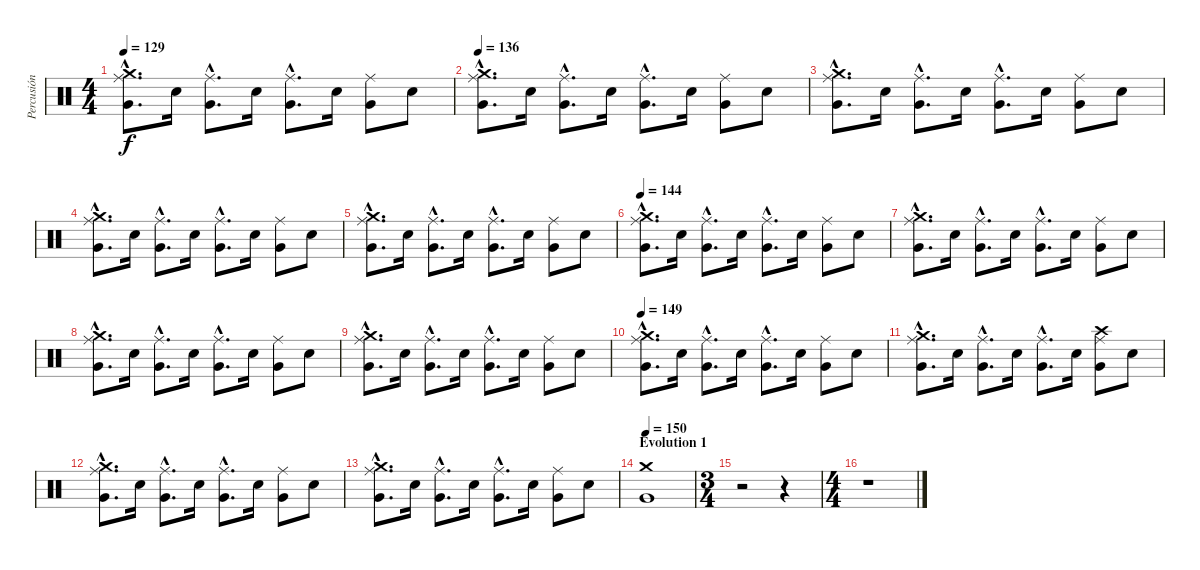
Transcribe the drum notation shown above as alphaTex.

\track ("Percusión" "Percusión") {instrument percussion}
\staff {score}
\articulation defaults
\ts (4 4)
\tempo 129
\clef neutral
\ks c
("Crash medium (hit)"{hac} "Ride (middle)"{hac} "Very Low Tom (hit)"{hac}).8{d dy f} "Electric Snare (hit)".16 ("Ride (middle)"{hac} "Very Low Tom (hit)"{hac}).8{d} "Electric Snare (hit)".16 ("Ride (middle)"{hac} "Very Low Tom (hit)"{hac}).8{d} "Electric Snare (hit)".16 ("Ride (middle)" "Very Low Tom (hit)").8 "Electric Snare (hit)".8 |
\tempo 136
("Crash medium (hit)"{hac} "Ride (middle)"{hac} "Very Low Tom (hit)"{hac}).8{d} "Electric Snare (hit)".16 ("Ride (middle)"{hac} "Very Low Tom (hit)"{hac}).8{d} "Electric Snare (hit)".16 ("Ride (middle)"{hac} "Very Low Tom (hit)"{hac}).8{d} "Electric Snare (hit)".16 ("Ride (middle)" "Very Low Tom (hit)").8 "Electric Snare (hit)".8 |
("Crash medium (hit)"{hac} "Ride (middle)"{hac} "Very Low Tom (hit)"{hac}).8{d} "Electric Snare (hit)".16 ("Ride (middle)"{hac} "Very Low Tom (hit)"{hac}).8{d} "Electric Snare (hit)".16 ("Ride (middle)"{hac} "Very Low Tom (hit)"{hac}).8{d} "Electric Snare (hit)".16 ("Ride (middle)" "Very Low Tom (hit)").8 "Electric Snare (hit)".8 |
("Crash medium (hit)"{hac} "Ride (middle)"{hac} "Very Low Tom (hit)"{hac}).8{d} "Electric Snare (hit)".16 ("Ride (middle)"{hac} "Very Low Tom (hit)"{hac}).8{d} "Electric Snare (hit)".16 ("Ride (middle)"{hac} "Very Low Tom (hit)"{hac}).8{d} "Electric Snare (hit)".16 ("Ride (middle)" "Very Low Tom (hit)").8 "Electric Snare (hit)".8 |
("Crash medium (hit)"{hac} "Ride (middle)"{hac} "Very Low Tom (hit)"{hac}).8{d} "Electric Snare (hit)".16 ("Ride (middle)"{hac} "Very Low Tom (hit)"{hac}).8{d} "Electric Snare (hit)".16 ("Ride (middle)"{hac} "Very Low Tom (hit)"{hac}).8{d} "Electric Snare (hit)".16 ("Ride (middle)" "Very Low Tom (hit)").8 "Electric Snare (hit)".8 |
\tempo 144
("Crash medium (hit)"{hac} "Ride (middle)"{hac} "Very Low Tom (hit)"{hac}).8{d} "Electric Snare (hit)".16 ("Ride (middle)"{hac} "Very Low Tom (hit)"{hac}).8{d} "Electric Snare (hit)".16 ("Ride (middle)"{hac} "Very Low Tom (hit)"{hac}).8{d} "Electric Snare (hit)".16 ("Ride (middle)" "Very Low Tom (hit)").8 "Electric Snare (hit)".8 |
("Crash medium (hit)"{hac} "Ride (middle)"{hac} "Very Low Tom (hit)"{hac}).8{d} "Electric Snare (hit)".16 ("Ride (middle)"{hac} "Very Low Tom (hit)"{hac}).8{d} "Electric Snare (hit)".16 ("Ride (middle)"{hac} "Very Low Tom (hit)"{hac}).8{d} "Electric Snare (hit)".16 ("Ride (middle)" "Very Low Tom (hit)").8 "Electric Snare (hit)".8 |
("Crash medium (hit)"{hac} "Ride (middle)"{hac} "Very Low Tom (hit)"{hac}).8{d} "Electric Snare (hit)".16 ("Ride (middle)"{hac} "Very Low Tom (hit)"{hac}).8{d} "Electric Snare (hit)".16 ("Ride (middle)"{hac} "Very Low Tom (hit)"{hac}).8{d} "Electric Snare (hit)".16 ("Ride (middle)" "Very Low Tom (hit)").8 "Electric Snare (hit)".8 |
("Crash medium (hit)"{hac} "Ride (middle)"{hac} "Very Low Tom (hit)"{hac}).8{d} "Electric Snare (hit)".16 ("Ride (middle)"{hac} "Very Low Tom (hit)"{hac}).8{d} "Electric Snare (hit)".16 ("Ride (middle)"{hac} "Very Low Tom (hit)"{hac}).8{d} "Electric Snare (hit)".16 ("Ride (middle)" "Very Low Tom (hit)").8 "Electric Snare (hit)".8 |
\tempo 149
("Crash medium (hit)"{hac} "Ride (middle)"{hac} "Very Low Tom (hit)"{hac}).8{d} "Electric Snare (hit)".16 ("Ride (middle)"{hac} "Very Low Tom (hit)"{hac}).8{d} "Electric Snare (hit)".16 ("Ride (middle)"{hac} "Very Low Tom (hit)"{hac}).8{d} "Electric Snare (hit)".16 ("Ride (middle)" "Very Low Tom (hit)").8 "Electric Snare (hit)".8 |
("Crash medium (hit)"{hac} "Ride (middle)"{hac} "Very Low Tom (hit)"{hac}).8{d} "Electric Snare (hit)".16 ("Ride (middle)"{hac} "Very Low Tom (hit)"{hac}).8{d} "Electric Snare (hit)".16 ("Ride (middle)"{hac} "Very Low Tom (hit)"{hac}).8{d} "Electric Snare (hit)".16 ("Crash high (hit)" "Ride (middle)" "Very Low Tom (hit)").8 "Electric Snare (hit)".8 |
("Crash medium (hit)"{hac} "Ride (middle)"{hac} "Very Low Tom (hit)"{hac}).8{d} "Electric Snare (hit)".16 ("Ride (middle)"{hac} "Very Low Tom (hit)"{hac}).8{d} "Electric Snare (hit)".16 ("Ride (middle)"{hac} "Very Low Tom (hit)"{hac}).8{d} "Electric Snare (hit)".16 ("Ride (middle)" "Very Low Tom (hit)").8 "Electric Snare (hit)".8 |
("Crash medium (hit)"{hac} "Ride (middle)"{hac} "Very Low Tom (hit)"{hac}).8{d} "Electric Snare (hit)".16 ("Ride (middle)"{hac} "Very Low Tom (hit)"{hac}).8{d} "Electric Snare (hit)".16 ("Ride (middle)"{hac} "Very Low Tom (hit)"{hac}).8{d} "Electric Snare (hit)".16 ("Ride (middle)" "Very Low Tom (hit)").8 "Electric Snare (hit)".8 |
\section ("" "Evolution 1")
\tempo 150
("Crash medium (hit)" "Very Low Tom (hit)").1 |
\ts (3 4)
r.2 r.4 |
\ts (4 4)
r.1
